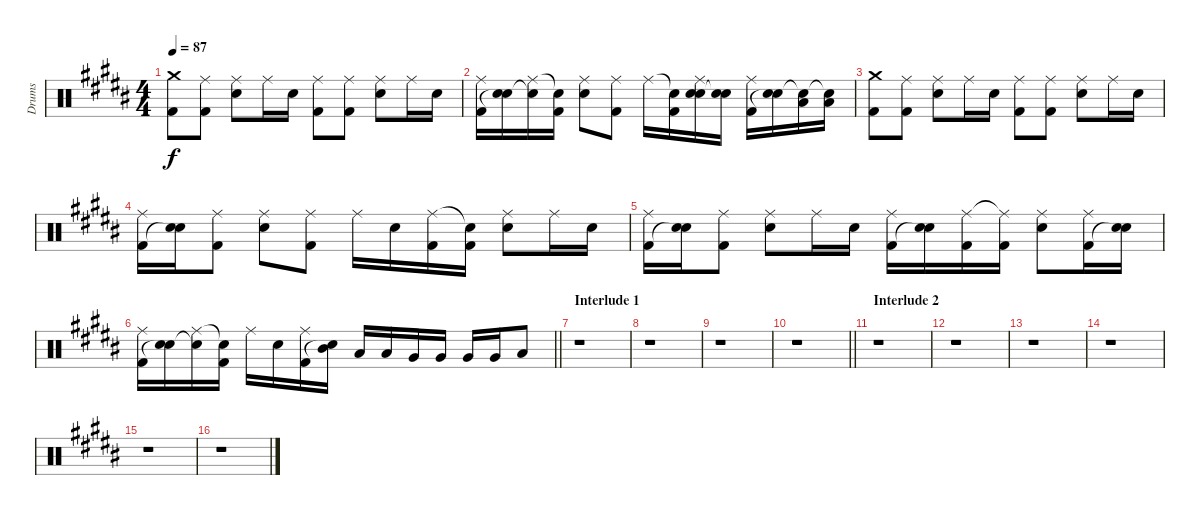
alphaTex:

\track ("Drums" "Drums") {instrument percussion}
\staff {score}
\articulation defaults
\ts (4 4)
\tempo 87
\clef neutral
\ks b
("Crash medium (hit)" "Kick (hit) 2").8{dy f} ("Ride (middle)" "Kick (hit) 2").8 ("Ride (middle)" "Electric Snare (hit)").8 "Ride (middle)".16 "Electric Snare (hit)".16 ("Ride (middle)" "Kick (hit) 2").8 ("Ride (middle)" "Kick (hit) 2").8 ("Ride (middle)" "Electric Snare (hit)").8 "Ride (middle)".16 "Electric Snare (hit)".16 |
("Ride (middle)" "Kick (hit) 2").16 ("Electric Snare (hit)" "Snare (hit)"{t}).16 ("Ride (middle)" "Snare (hit)"{t}).16 ("Snare (hit)"{t} "Kick (hit) 2").16 ("Ride (middle)" "Electric Snare (hit)").8 ("Ride (middle)" "Kick (hit) 2").8 "Ride (middle)".16 ("Snare (hit)"{t} "Kick (hit) 2").16 ("Ride (middle)" "Electric Snare (hit)" "Snare (hit)").16 ("Electric Snare (hit)" "Snare (hit)"{t}).16 ("Ride (middle)" "Kick (hit) 2").16 ("Electric Snare (hit)" "Snare (hit)"{t}).16 ("Low Tom (hit)" "Snare (hit)"{t}).16 ("Low Tom (hit)" "Snare (hit)"{t}).16 |
("Crash medium (hit)" "Kick (hit) 2").8 ("Ride (middle)" "Kick (hit) 2").8 ("Ride (middle)" "Electric Snare (hit)").8 "Ride (middle)".16 "Electric Snare (hit)".16 ("Ride (middle)" "Kick (hit) 2").8 ("Ride (middle)" "Kick (hit) 2").8 ("Ride (middle)" "Electric Snare (hit)").8 "Ride (middle)".16 "Electric Snare (hit)".16 |
("Ride (middle)" "Kick (hit) 2").16 ("Electric Snare (hit)" "Snare (hit)"{t}).16 ("Ride (middle)" "Kick (hit) 2").8 ("Ride (middle)" "Electric Snare (hit)").8 ("Ride (middle)" "Kick (hit) 2").8 "Ride (middle)".16 "Electric Snare (hit)".16 ("Ride (middle)" "Kick (hit) 2").16 ("Snare (hit)"{t} "Kick (hit) 2").16 ("Ride (middle)" "Electric Snare (hit)").8 "Ride (middle)".16 "Electric Snare (hit)".16 |
("Ride (middle)" "Kick (hit) 2").16 ("Electric Snare (hit)" "Snare (hit)"{t}).16 ("Ride (middle)" "Kick (hit) 2").8 ("Ride (middle)" "Electric Snare (hit)").8 "Ride (middle)".16 "Electric Snare (hit)".16 ("Ride (middle)" "Kick (hit) 2").16 ("Electric Snare (hit)" "Snare (hit)"{t}).16 ("Ride (middle)" "Kick (hit) 2").16 ("Ride (middle)"{t} "Kick (hit) 2").16 ("Ride (middle)" "Electric Snare (hit)").8 ("Ride (middle)" "Kick (hit) 2").16 ("Electric Snare (hit)" "Snare (hit)"{t}).16 |
\barLineRight lightlight
("Ride (middle)" "Kick (hit) 2").16 ("Electric Snare (hit)" "Snare (hit)"{t}).16 ("Ride (middle)" "Snare (hit)"{t}).16 ("Snare (hit)"{t} "Kick (hit) 2").16 "Ride (middle)".16 "Electric Snare (hit)".16 ("Ride (middle)" "Kick (hit) 2").16 ("Mid Tom (hit)" "Snare (hit)"{t}).16 "Low Tom (hit)".16 "Low Tom (hit)".16 "Very Low Tom (hit)".16 "Very Low Tom (hit)".16 "Very Low Tom (hit)".16 "Very Low Tom (hit)".16 "Low Floor Tom (hit)".8 |
\section ("" "Interlude 1")
r.1 |
r.1 |
r.1 |
\barLineRight lightlight
r.1 |
\section ("" "Interlude 2")
r.1 |
r.1 |
r.1 |
r.1 |
r.1 |
r.1
